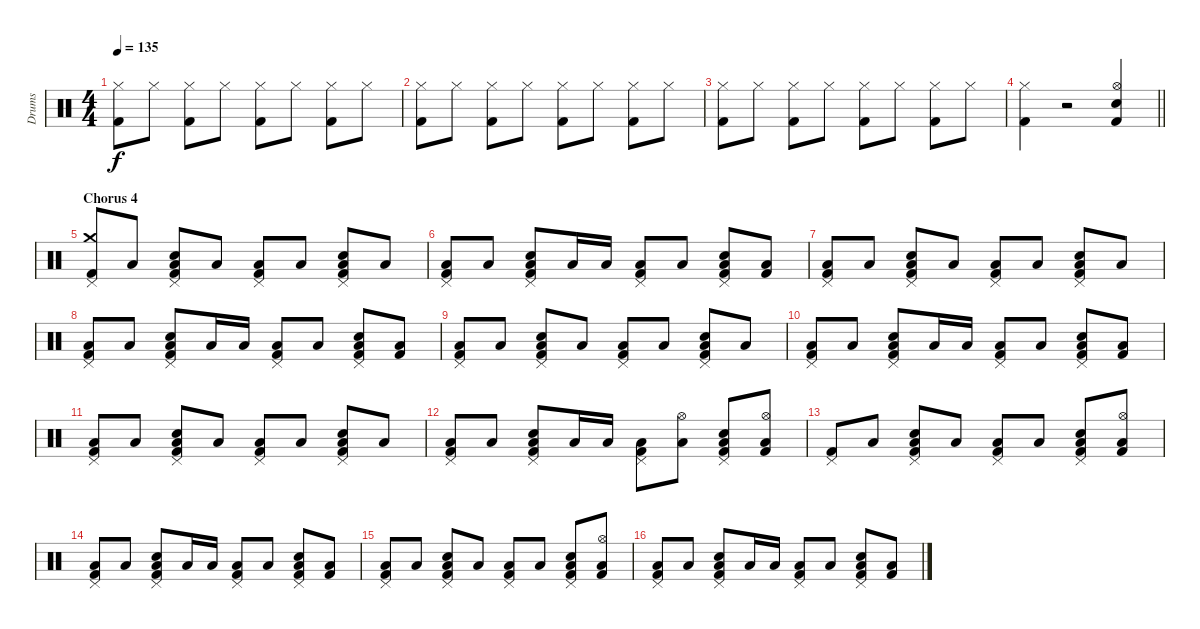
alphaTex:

\track ("Drums" "Drums") {instrument percussion}
\staff {score}
\articulation defaults
\ts (4 4)
\tempo 135
\clef neutral
\ks c
("Hi-Hat (closed)" "Kick (hit) 2").8{dy f} "Hi-Hat (closed)".8 ("Hi-Hat (closed)" "Kick (hit) 2").8 "Hi-Hat (closed)".8 ("Hi-Hat (closed)" "Kick (hit) 2").8 "Hi-Hat (closed)".8 ("Hi-Hat (closed)" "Kick (hit) 2").8 "Hi-Hat (closed)".8 |
("Hi-Hat (closed)" "Kick (hit) 2").8 "Hi-Hat (closed)".8 ("Hi-Hat (closed)" "Kick (hit) 2").8 "Hi-Hat (closed)".8 ("Hi-Hat (closed)" "Kick (hit) 2").8 "Hi-Hat (closed)".8 ("Hi-Hat (closed)" "Kick (hit) 2").8 "Hi-Hat (closed)".8 |
("Hi-Hat (closed)" "Kick (hit) 2").8 "Hi-Hat (closed)".8 ("Hi-Hat (closed)" "Kick (hit) 2").8 "Hi-Hat (closed)".8 ("Hi-Hat (closed)" "Kick (hit) 2").8 "Hi-Hat (closed)".8 ("Hi-Hat (closed)" "Kick (hit) 2").8 "Hi-Hat (closed)".8 |
\barLineRight lightlight
("Hi-Hat (closed)" "Kick (hit) 2").4 r.2 ("Hi-Hat (open)" "Electric Snare (hit)" "Kick (hit) 2").4 |
\section ("" "Chorus 4")
("Crash medium (hit)" "Pedal Hi-Hat (hit)" "Kick (hit) 2").8 "Low Floor Tom (hit)".8 ("Pedal Hi-Hat (hit)" "Low Floor Tom (hit)" "Electric Snare (hit)" "Kick (hit) 2").8 "Low Floor Tom (hit)".8 ("Pedal Hi-Hat (hit)" "Low Floor Tom (hit)" "Kick (hit) 2").8 "Low Floor Tom (hit)".8 ("Pedal Hi-Hat (hit)" "Low Floor Tom (hit)" "Electric Snare (hit)" "Kick (hit) 2").8 "Low Floor Tom (hit)".8 |
("Pedal Hi-Hat (hit)" "Low Floor Tom (hit)" "Kick (hit) 2").8 "Low Floor Tom (hit)".8 ("Pedal Hi-Hat (hit)" "Low Floor Tom (hit)" "Electric Snare (hit)" "Kick (hit) 2").8 "Low Floor Tom (hit)".16 "Low Floor Tom (hit)".16 ("Pedal Hi-Hat (hit)" "Low Floor Tom (hit)" "Kick (hit) 2").8 "Low Floor Tom (hit)".8 ("Pedal Hi-Hat (hit)" "Low Floor Tom (hit)" "Electric Snare (hit)" "Kick (hit) 2").8 ("Low Floor Tom (hit)" "Kick (hit) 2").8 |
("Pedal Hi-Hat (hit)" "Low Floor Tom (hit)" "Kick (hit) 2").8 "Low Floor Tom (hit)".8 ("Pedal Hi-Hat (hit)" "Low Floor Tom (hit)" "Electric Snare (hit)" "Kick (hit) 2").8 "Low Floor Tom (hit)".8 ("Pedal Hi-Hat (hit)" "Low Floor Tom (hit)" "Kick (hit) 2").8 "Low Floor Tom (hit)".8 ("Pedal Hi-Hat (hit)" "Low Floor Tom (hit)" "Electric Snare (hit)" "Kick (hit) 2").8 "Low Floor Tom (hit)".8 |
("Pedal Hi-Hat (hit)" "Low Floor Tom (hit)" "Kick (hit) 2").8 "Low Floor Tom (hit)".8 ("Pedal Hi-Hat (hit)" "Low Floor Tom (hit)" "Electric Snare (hit)" "Kick (hit) 2").8 "Low Floor Tom (hit)".16 "Low Floor Tom (hit)".16 ("Pedal Hi-Hat (hit)" "Low Floor Tom (hit)" "Kick (hit) 2").8 "Low Floor Tom (hit)".8 ("Pedal Hi-Hat (hit)" "Low Floor Tom (hit)" "Electric Snare (hit)" "Kick (hit) 2").8 ("Low Floor Tom (hit)" "Kick (hit) 2").8 |
("Pedal Hi-Hat (hit)" "Low Floor Tom (hit)" "Kick (hit) 2").8 "Low Floor Tom (hit)".8 ("Pedal Hi-Hat (hit)" "Low Floor Tom (hit)" "Electric Snare (hit)" "Kick (hit) 2").8 "Low Floor Tom (hit)".8 ("Pedal Hi-Hat (hit)" "Low Floor Tom (hit)" "Kick (hit) 2").8 "Low Floor Tom (hit)".8 ("Pedal Hi-Hat (hit)" "Low Floor Tom (hit)" "Electric Snare (hit)" "Kick (hit) 2").8 "Low Floor Tom (hit)".8 |
("Pedal Hi-Hat (hit)" "Low Floor Tom (hit)" "Kick (hit) 2").8 "Low Floor Tom (hit)".8 ("Pedal Hi-Hat (hit)" "Low Floor Tom (hit)" "Electric Snare (hit)" "Kick (hit) 2").8 "Low Floor Tom (hit)".16 "Low Floor Tom (hit)".16 ("Pedal Hi-Hat (hit)" "Low Floor Tom (hit)" "Kick (hit) 2").8 "Low Floor Tom (hit)".8 ("Pedal Hi-Hat (hit)" "Low Floor Tom (hit)" "Electric Snare (hit)" "Kick (hit) 2").8 ("Low Floor Tom (hit)" "Kick (hit) 2").8 |
("Pedal Hi-Hat (hit)" "Low Floor Tom (hit)" "Kick (hit) 2").8 "Low Floor Tom (hit)".8 ("Pedal Hi-Hat (hit)" "Low Floor Tom (hit)" "Electric Snare (hit)" "Kick (hit) 2").8 "Low Floor Tom (hit)".8 ("Pedal Hi-Hat (hit)" "Low Floor Tom (hit)" "Kick (hit) 2").8 "Low Floor Tom (hit)".8 ("Pedal Hi-Hat (hit)" "Low Floor Tom (hit)" "Electric Snare (hit)" "Kick (hit) 2").8 "Low Floor Tom (hit)".8 |
("Pedal Hi-Hat (hit)" "Low Floor Tom (hit)" "Kick (hit) 2").8 "Low Floor Tom (hit)".8 ("Pedal Hi-Hat (hit)" "Low Floor Tom (hit)" "Electric Snare (hit)" "Kick (hit) 2").8 "Low Floor Tom (hit)".16 "Low Floor Tom (hit)".16 ("Pedal Hi-Hat (hit)" "Low Floor Tom (hit)" "Kick (hit) 2").8 ("Hi-Hat (open)" "Low Floor Tom (hit)").8 ("Pedal Hi-Hat (hit)" "Low Floor Tom (hit)" "Electric Snare (hit)" "Kick (hit) 2").8 ("Hi-Hat (open)" "Low Floor Tom (hit)" "Kick (hit) 2").8 |
("Pedal Hi-Hat (hit)" "Kick (hit) 2").8 "Low Floor Tom (hit)".8 ("Pedal Hi-Hat (hit)" "Low Floor Tom (hit)" "Electric Snare (hit)" "Kick (hit) 2").8 "Low Floor Tom (hit)".8 ("Pedal Hi-Hat (hit)" "Low Floor Tom (hit)" "Kick (hit) 2").8 "Low Floor Tom (hit)".8 ("Pedal Hi-Hat (hit)" "Low Floor Tom (hit)" "Electric Snare (hit)" "Kick (hit) 2").8 ("Hi-Hat (open)" "Low Floor Tom (hit)" "Kick (hit) 2").8 |
("Pedal Hi-Hat (hit)" "Low Floor Tom (hit)" "Kick (hit) 2").8 "Low Floor Tom (hit)".8 ("Pedal Hi-Hat (hit)" "Low Floor Tom (hit)" "Electric Snare (hit)" "Kick (hit) 2").8 "Low Floor Tom (hit)".16 "Low Floor Tom (hit)".16 ("Pedal Hi-Hat (hit)" "Low Floor Tom (hit)" "Kick (hit) 2").8 "Low Floor Tom (hit)".8 ("Pedal Hi-Hat (hit)" "Low Floor Tom (hit)" "Electric Snare (hit)" "Kick (hit) 2").8 ("Low Floor Tom (hit)" "Kick (hit) 2").8 |
("Pedal Hi-Hat (hit)" "Low Floor Tom (hit)" "Kick (hit) 2").8 "Low Floor Tom (hit)".8 ("Pedal Hi-Hat (hit)" "Low Floor Tom (hit)" "Electric Snare (hit)" "Kick (hit) 2").8 "Low Floor Tom (hit)".8 ("Pedal Hi-Hat (hit)" "Low Floor Tom (hit)" "Kick (hit) 2").8 "Low Floor Tom (hit)".8 ("Pedal Hi-Hat (hit)" "Low Floor Tom (hit)" "Electric Snare (hit)" "Kick (hit) 2").8 ("Hi-Hat (open)" "Low Floor Tom (hit)" "Kick (hit) 2").8 |
("Pedal Hi-Hat (hit)" "Low Floor Tom (hit)" "Kick (hit) 2").8 "Low Floor Tom (hit)".8 ("Pedal Hi-Hat (hit)" "Low Floor Tom (hit)" "Electric Snare (hit)" "Kick (hit) 2").8 "Low Floor Tom (hit)".16 "Low Floor Tom (hit)".16 ("Pedal Hi-Hat (hit)" "Low Floor Tom (hit)" "Kick (hit) 2").8 "Low Floor Tom (hit)".8 ("Pedal Hi-Hat (hit)" "Low Floor Tom (hit)" "Electric Snare (hit)" "Kick (hit) 2").8 ("Low Floor Tom (hit)" "Kick (hit) 2").8
